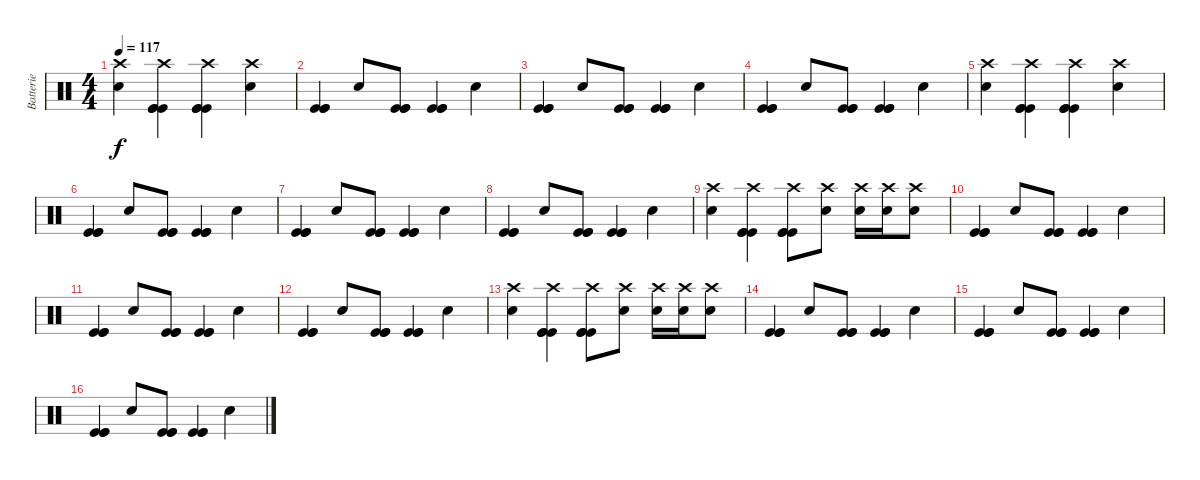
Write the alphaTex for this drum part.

\track ("Batterie" "Batterie") {instrument percussion}
\staff {score}
\articulation defaults
\ts (4 4)
\tempo 117
\clef neutral
\ks c
("Electric Snare (hit)" "Crash high (hit)").4{dy f} ("Kick (hit)" "Kick (hit)" "Kick (hit)" "Crash high (hit)").4 ("Kick (hit)" "Kick (hit)" "Kick (hit)" "Crash high (hit)").4 ("Electric Snare (hit)" "Crash high (hit)").4 |
("Kick (hit)" "Kick (hit)" "Kick (hit)").4 "Electric Snare (hit)".8 ("Kick (hit)" "Kick (hit)" "Kick (hit)").8 ("Kick (hit)" "Kick (hit)" "Kick (hit)").4 "Electric Snare (hit)".4 |
("Kick (hit)" "Kick (hit)" "Kick (hit)").4 "Electric Snare (hit)".8 ("Kick (hit)" "Kick (hit)" "Kick (hit)").8 ("Kick (hit)" "Kick (hit)" "Kick (hit)").4 "Electric Snare (hit)".4 |
("Kick (hit)" "Kick (hit)" "Kick (hit)").4 "Electric Snare (hit)".8 ("Kick (hit)" "Kick (hit)" "Kick (hit)").8 ("Kick (hit)" "Kick (hit)" "Kick (hit)").4 "Electric Snare (hit)".4 |
("Electric Snare (hit)" "Crash high (hit)").4 ("Kick (hit)" "Kick (hit)" "Kick (hit)" "Crash high (hit)").4 ("Kick (hit)" "Kick (hit)" "Kick (hit)" "Crash high (hit)").4 ("Electric Snare (hit)" "Crash high (hit)").4 |
("Kick (hit)" "Kick (hit)" "Kick (hit)").4 "Electric Snare (hit)".8 ("Kick (hit)" "Kick (hit)" "Kick (hit)").8 ("Kick (hit)" "Kick (hit)" "Kick (hit)").4 "Electric Snare (hit)".4 |
("Kick (hit)" "Kick (hit)" "Kick (hit)").4 "Electric Snare (hit)".8 ("Kick (hit)" "Kick (hit)" "Kick (hit)").8 ("Kick (hit)" "Kick (hit)" "Kick (hit)").4 "Electric Snare (hit)".4 |
("Kick (hit)" "Kick (hit)" "Kick (hit)").4 "Electric Snare (hit)".8 ("Kick (hit)" "Kick (hit)" "Kick (hit)").8 ("Kick (hit)" "Kick (hit)" "Kick (hit)").4 "Electric Snare (hit)".4 |
("Electric Snare (hit)" "Crash high (hit)").4 ("Kick (hit)" "Kick (hit)" "Kick (hit)" "Crash high (hit)").4 ("Kick (hit)" "Kick (hit)" "Kick (hit)" "Crash high (hit)").8 ("Electric Snare (hit)" "Crash high (hit)").8 ("Electric Snare (hit)" "Crash high (hit)").16 ("Electric Snare (hit)" "Crash high (hit)").16 ("Electric Snare (hit)" "Crash high (hit)").8 |
("Kick (hit)" "Kick (hit)" "Kick (hit)").4 "Electric Snare (hit)".8 ("Kick (hit)" "Kick (hit)" "Kick (hit)").8 ("Kick (hit)" "Kick (hit)" "Kick (hit)").4 "Electric Snare (hit)".4 |
("Kick (hit)" "Kick (hit)" "Kick (hit)").4 "Electric Snare (hit)".8 ("Kick (hit)" "Kick (hit)" "Kick (hit)").8 ("Kick (hit)" "Kick (hit)" "Kick (hit)").4 "Electric Snare (hit)".4 |
("Kick (hit)" "Kick (hit)" "Kick (hit)").4 "Electric Snare (hit)".8 ("Kick (hit)" "Kick (hit)" "Kick (hit)").8 ("Kick (hit)" "Kick (hit)" "Kick (hit)").4 "Electric Snare (hit)".4 |
("Electric Snare (hit)" "Crash high (hit)").4 ("Kick (hit)" "Kick (hit)" "Kick (hit)" "Crash high (hit)").4 ("Kick (hit)" "Kick (hit)" "Kick (hit)" "Crash high (hit)").8 ("Electric Snare (hit)" "Crash high (hit)").8 ("Electric Snare (hit)" "Crash high (hit)").16 ("Electric Snare (hit)" "Crash high (hit)").16 ("Electric Snare (hit)" "Crash high (hit)").8 |
("Kick (hit)" "Kick (hit)" "Kick (hit)").4 "Electric Snare (hit)".8 ("Kick (hit)" "Kick (hit)" "Kick (hit)").8 ("Kick (hit)" "Kick (hit)" "Kick (hit)").4 "Electric Snare (hit)".4 |
("Kick (hit)" "Kick (hit)" "Kick (hit)").4 "Electric Snare (hit)".8 ("Kick (hit)" "Kick (hit)" "Kick (hit)").8 ("Kick (hit)" "Kick (hit)" "Kick (hit)").4 "Electric Snare (hit)".4 |
("Kick (hit)" "Kick (hit)" "Kick (hit)").4 "Electric Snare (hit)".8 ("Kick (hit)" "Kick (hit)" "Kick (hit)").8 ("Kick (hit)" "Kick (hit)" "Kick (hit)").4 "Electric Snare (hit)".4
